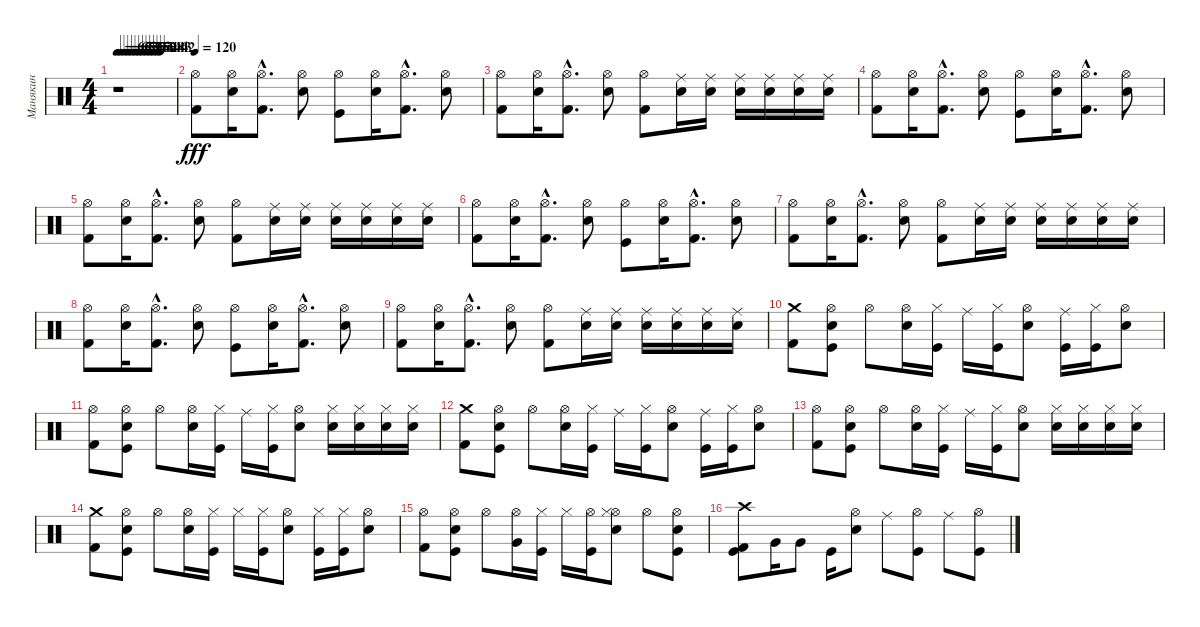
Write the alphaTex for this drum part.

\track ("Манякин" "Манякин") {instrument percussion}
\staff {score}
\articulation defaults
\ts (4 4)
\tempo 65
\tempo (65 0.0625)
\tempo (63 0.125)
\tempo (61 0.1875)
\tempo (59 0.25)
\tempo (56 0.3125)
\tempo (54 0.375)
\tempo (52 0.4375)
\tempo (50 0.5)
\tempo (48 0.5625)
\tempo (46 0.625)
\tempo (43 0.6875)
\tempo (42 0.75)
\clef neutral
\ks c
r.1{dy fff} |
\tempo 120
("Hi-Hat (open)" "Kick (hit) 2").8 ("Hi-Hat (open)" "Snare (hit) 2").16 ("Hi-Hat (open)"{hac} "Kick (hit) 2"{hac}).8{d} ("Hi-Hat (open)" "Snare (hit) 2").8 ("Hi-Hat (open)" "Kick (hit)").8 ("Hi-Hat (open)" "Snare (hit) 2").16 ("Hi-Hat (open)"{hac} "Kick (hit) 2"{hac}).8{d} ("Hi-Hat (open)" "Snare (hit) 2").8 |
("Hi-Hat (open)" "Kick (hit) 2").8 ("Hi-Hat (open)" "Snare (hit) 2").16 ("Hi-Hat (open)"{hac} "Kick (hit) 2"{hac}).8{d} ("Hi-Hat (open)" "Snare (hit) 2").8 ("Hi-Hat (open)" "Kick (hit) 2").8 ("Ride (middle)" "Snare (hit) 2").16 ("Ride (middle)" "Snare (hit) 2").16 ("Ride (middle)" "Snare (hit) 2").16 ("Ride (middle)" "Snare (hit) 2").16 ("Ride (middle)" "Snare (hit) 2").16 ("Ride (middle)" "Snare (hit) 2").16 |
("Hi-Hat (open)" "Kick (hit) 2").8 ("Hi-Hat (open)" "Snare (hit) 2").16 ("Hi-Hat (open)"{hac} "Kick (hit) 2"{hac}).8{d} ("Hi-Hat (open)" "Snare (hit) 2").8 ("Hi-Hat (open)" "Kick (hit)").8 ("Hi-Hat (open)" "Snare (hit) 2").16 ("Hi-Hat (open)"{hac} "Kick (hit) 2"{hac}).8{d} ("Hi-Hat (open)" "Snare (hit) 2").8 |
("Hi-Hat (open)" "Kick (hit) 2").8 ("Hi-Hat (open)" "Snare (hit) 2").16 ("Hi-Hat (open)"{hac} "Kick (hit) 2"{hac}).8{d} ("Hi-Hat (open)" "Snare (hit) 2").8 ("Hi-Hat (open)" "Kick (hit) 2").8 ("Ride (middle)" "Snare (hit) 2").16 ("Ride (middle)" "Snare (hit) 2").16 ("Ride (middle)" "Snare (hit) 2").16 ("Ride (middle)" "Snare (hit) 2").16 ("Ride (middle)" "Snare (hit) 2").16 ("Ride (middle)" "Snare (hit) 2").16 |
("Hi-Hat (open)" "Kick (hit) 2").8 ("Hi-Hat (open)" "Snare (hit) 2").16 ("Hi-Hat (open)"{hac} "Kick (hit) 2"{hac}).8{d} ("Hi-Hat (open)" "Snare (hit) 2").8 ("Hi-Hat (open)" "Kick (hit)").8 ("Hi-Hat (open)" "Snare (hit) 2").16 ("Hi-Hat (open)"{hac} "Kick (hit) 2"{hac}).8{d} ("Hi-Hat (open)" "Snare (hit) 2").8 |
("Hi-Hat (open)" "Kick (hit) 2").8 ("Hi-Hat (open)" "Snare (hit) 2").16 ("Hi-Hat (open)"{hac} "Kick (hit) 2"{hac}).8{d} ("Hi-Hat (open)" "Snare (hit) 2").8 ("Hi-Hat (open)" "Kick (hit) 2").8 ("Ride (middle)" "Snare (hit) 2").16 ("Ride (middle)" "Snare (hit) 2").16 ("Ride (middle)" "Snare (hit) 2").16 ("Ride (middle)" "Snare (hit) 2").16 ("Ride (middle)" "Snare (hit) 2").16 ("Ride (middle)" "Snare (hit) 2").16 |
("Hi-Hat (open)" "Kick (hit) 2").8 ("Hi-Hat (open)" "Snare (hit) 2").16 ("Hi-Hat (open)"{hac} "Kick (hit) 2"{hac}).8{d} ("Hi-Hat (open)" "Snare (hit) 2").8 ("Hi-Hat (open)" "Kick (hit)").8 ("Hi-Hat (open)" "Snare (hit) 2").16 ("Hi-Hat (open)"{hac} "Kick (hit) 2"{hac}).8{d} ("Hi-Hat (open)" "Snare (hit) 2").8 |
("Hi-Hat (open)" "Kick (hit) 2").8 ("Hi-Hat (open)" "Snare (hit) 2").16 ("Hi-Hat (open)"{hac} "Kick (hit) 2"{hac}).8{d} ("Hi-Hat (open)" "Snare (hit) 2").8 ("Hi-Hat (open)" "Kick (hit) 2").8 ("Ride (middle)" "Snare (hit) 2").16 ("Ride (middle)" "Snare (hit) 2").16 ("Ride (middle)" "Snare (hit) 2").16 ("Ride (middle)" "Snare (hit) 2").16 ("Ride (middle)" "Snare (hit) 2").16 ("Ride (middle)" "Snare (hit) 2").16 |
("Crash medium (hit)" "Kick (hit) 2").8 ("Hi-Hat (open)" "Kick (hit)" "Snare (hit) 2").8 "Hi-Hat (open)".8 ("Snare (hit) 2" "Hi-Hat (open)").16 ("Kick (hit)" "Hi-Hat (closed)").16 "Ride (middle)".16 ("Kick (hit)" "Hi-Hat (closed)").16 ("Snare (hit) 2" "Hi-Hat (open)").8 ("Kick (hit)" "Ride (middle)").16 ("Kick (hit)" "Hi-Hat (closed)").16 ("Snare (hit) 2" "Hi-Hat (open)").8 |
("Hi-Hat (open)" "Kick (hit) 2").8 ("Hi-Hat (open)" "Snare (hit) 2" "Kick (hit)").8 "Hi-Hat (open)".8 ("Snare (hit) 2" "Hi-Hat (open)").16 ("Hi-Hat (closed)" "Kick (hit)").16 "Ride (middle)".16 ("Hi-Hat (closed)" "Kick (hit)").16 ("Hi-Hat (open)" "Snare (hit) 2").8 ("Hi-Hat (closed)" "Snare (hit) 2").16 ("Hi-Hat (closed)" "Snare (hit) 2").16 ("Hi-Hat (closed)" "Snare (hit) 2").16 ("Hi-Hat (closed)" "Snare (hit) 2").16 |
("Crash medium (hit)" "Kick (hit) 2").8 ("Hi-Hat (open)" "Kick (hit)" "Snare (hit) 2").8 "Hi-Hat (open)".8 ("Snare (hit) 2" "Hi-Hat (open)").16 ("Kick (hit)" "Hi-Hat (closed)").16 "Ride (middle)".16 ("Kick (hit)" "Hi-Hat (closed)").16 ("Snare (hit) 2" "Hi-Hat (open)").8 ("Kick (hit)" "Ride (middle)").16 ("Kick (hit)" "Hi-Hat (closed)").16 ("Snare (hit) 2" "Hi-Hat (open)").8 |
("Hi-Hat (open)" "Kick (hit) 2").8 ("Hi-Hat (open)" "Snare (hit) 2" "Kick (hit)").8 "Hi-Hat (open)".8 ("Snare (hit) 2" "Hi-Hat (open)").16 ("Hi-Hat (closed)" "Kick (hit)").16 "Ride (middle)".16 ("Hi-Hat (closed)" "Kick (hit)").16 ("Hi-Hat (open)" "Snare (hit) 2").8 ("Hi-Hat (closed)" "Snare (hit) 2").16 ("Hi-Hat (closed)" "Snare (hit) 2").16 ("Hi-Hat (closed)" "Snare (hit) 2").16 ("Hi-Hat (closed)" "Snare (hit) 2").16 |
("Crash medium (hit)" "Kick (hit) 2").8 ("Hi-Hat (open)" "Snare (hit) 2" "Kick (hit)").8 "Hi-Hat (open)".8 ("Snare (hit) 2" "Hi-Hat (open)").16 ("Hi-Hat (closed)" "Kick (hit)").16 "Hi-Hat (closed)".16 ("Hi-Hat (closed)" "Kick (hit)").16 ("Hi-Hat (open)" "Snare (hit) 2").8 ("Hi-Hat (closed)" "Kick (hit)").16 ("Hi-Hat (closed)" "Kick (hit)").16 ("Hi-Hat (open)" "Snare (hit) 2").8 |
("Hi-Hat (open)" "Kick (hit) 2").8 ("Hi-Hat (open)" "Snare (hit) 2" "Kick (hit)").8 "Hi-Hat (open)".8 ("Hi-Hat (open)" "Very Low Tom (hit)").16 ("Hi-Hat (closed)" "Kick (hit)").16 "Hi-Hat (closed)".16 ("Hi-Hat (open)" "Kick (hit)").16 ("Hi-Hat (open)" "Hi-Hat (closed)" "Snare (hit) 2").8 "Hi-Hat (open)".8 ("Hi-Hat (open)" "Snare (hit) 2" "Kick (hit)").8 |
("Crash high (hit)" "Kick (hit)" "Kick (hit) 2").8 "Very Low Tom (hit)".16 "Very Low Tom (hit)".8 "Kick (hit)".16 ("Hi-Hat (open)" "Snare (hit) 2").8 "Ride (middle)".8 ("Kick (hit)" "Hi-Hat (open)").8 "Ride (middle)".8 ("Kick (hit)" "Hi-Hat (open)").8
